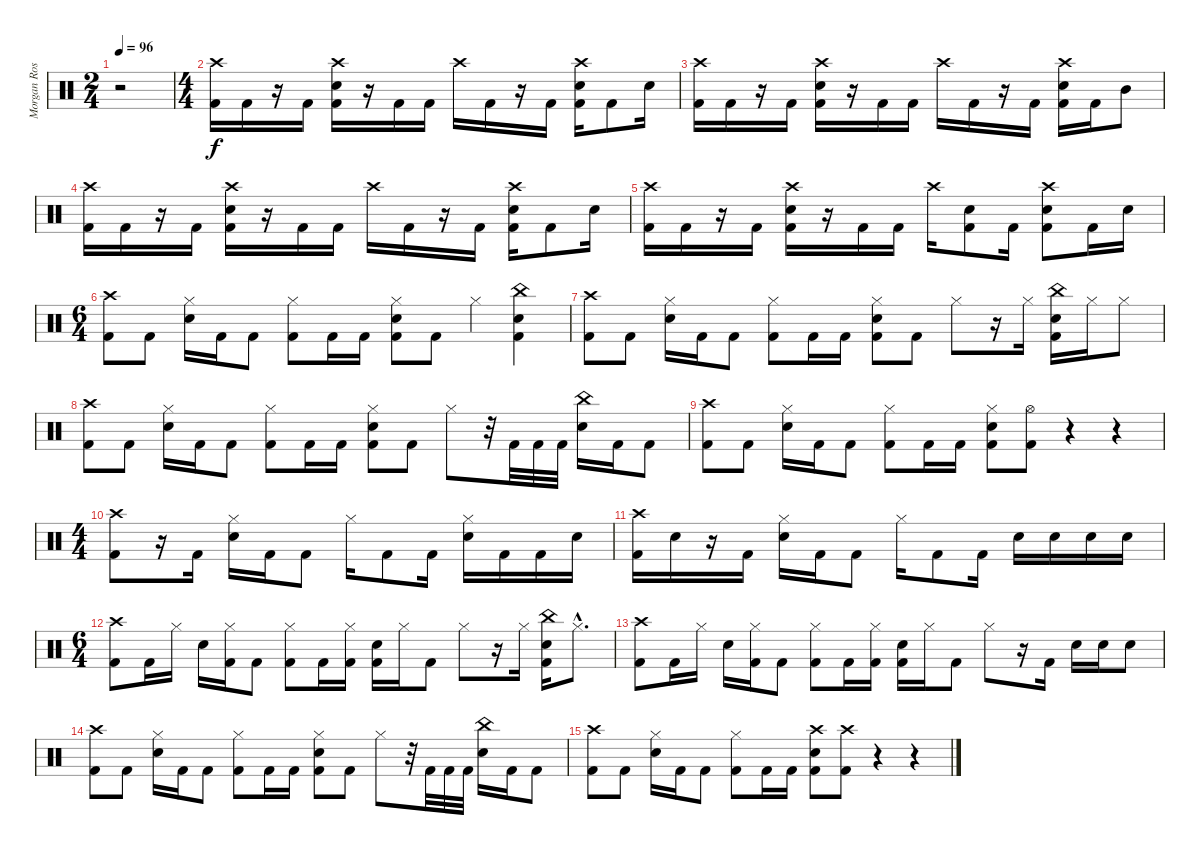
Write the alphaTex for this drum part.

\track ("Morgan Rose - Drums" "Morgan Ros") {instrument percussion}
\staff {score}
\articulation defaults
\ts (2 4)
\tempo 96
\clef neutral
\ks c
r.2{dy f} |
\ts (4 4)
("Crash high (hit)" "Kick (hit) 2").16 "Kick (hit) 2".16 r.16 "Kick (hit) 2".16 ("Crash high (hit)" "Electric Snare (hit)" "Kick (hit) 2").16 r.16 "Kick (hit) 2".16 "Kick (hit) 2".16 "Crash high (hit)".16 "Kick (hit) 2".16 r.16 "Kick (hit) 2".16 ("Crash high (hit)" "Electric Snare (hit)" "Kick (hit) 2").16 "Kick (hit) 2".8 "Electric Snare (hit)".16 |
("Crash high (hit)" "Kick (hit) 2").16 "Kick (hit) 2".16 r.16 "Kick (hit) 2".16 ("Crash high (hit)" "Electric Snare (hit)" "Kick (hit) 2").16 r.16 "Kick (hit) 2".16 "Kick (hit) 2".16 "Crash high (hit)".16 "Kick (hit) 2".16 r.16 "Kick (hit) 2".16 ("Crash high (hit)" "Electric Snare (hit)" "Kick (hit) 2").16 "Kick (hit) 2".16 "Mid Tom (hit)".8 |
("Crash high (hit)" "Kick (hit) 2").16 "Kick (hit) 2".16 r.16 "Kick (hit) 2".16 ("Crash high (hit)" "Electric Snare (hit)" "Kick (hit) 2").16 r.16 "Kick (hit) 2".16 "Kick (hit) 2".16 "Crash high (hit)".16 "Kick (hit) 2".16 r.16 "Kick (hit) 2".16 ("Crash high (hit)" "Electric Snare (hit)" "Kick (hit) 2").16 "Kick (hit) 2".8 "Electric Snare (hit)".16 |
("Crash high (hit)" "Kick (hit) 2").16 "Kick (hit) 2".16 r.16 "Kick (hit) 2".16 ("Crash high (hit)" "Electric Snare (hit)" "Kick (hit) 2").16 r.16 "Kick (hit) 2".16 "Kick (hit) 2".16 "Crash high (hit)".16 ("Electric Snare (hit)" "Kick (hit) 2").8 "Kick (hit) 2".16 ("Crash high (hit)" "Electric Snare (hit)" "Kick (hit) 2").8 "Kick (hit) 2".16 "Electric Snare (hit)".16 |
\ts (6 4)
("Crash high (hit)" "Kick (hit) 2").8 "Kick (hit) 2".8 ("Hi-Hat (closed)" "Electric Snare (hit)").16 "Kick (hit) 2".16 "Kick (hit) 2".8 ("Hi-Hat (closed)" "Kick (hit) 2").8 "Kick (hit) 2".16 "Kick (hit) 2".16 ("Hi-Hat (closed)" "Electric Snare (hit)" "Kick (hit) 2").8 "Kick (hit) 2".8 "Hi-Hat (closed)".4 ("China (hit)" "Electric Snare (hit)" "Kick (hit) 2").4 |
("Crash high (hit)" "Kick (hit) 2").8 "Kick (hit) 2".8 ("Hi-Hat (closed)" "Electric Snare (hit)").16 "Kick (hit) 2".16 "Kick (hit) 2".8 ("Hi-Hat (closed)" "Kick (hit) 2").8 "Kick (hit) 2".16 "Kick (hit) 2".16 ("Hi-Hat (closed)" "Electric Snare (hit)" "Kick (hit) 2").8 "Kick (hit) 2".8 "Hi-Hat (closed)".8 r.16 "Hi-Hat (closed)".16 ("China (hit)" "Electric Snare (hit)" "Kick (hit) 2").16 "Hi-Hat (closed)".16 "Hi-Hat (closed)".8 |
("Crash high (hit)" "Kick (hit) 2").8 "Kick (hit) 2".8 ("Hi-Hat (closed)" "Electric Snare (hit)").16 "Kick (hit) 2".16 "Kick (hit) 2".8 ("Hi-Hat (closed)" "Kick (hit) 2").8 "Kick (hit) 2".16 "Kick (hit) 2".16 ("Hi-Hat (closed)" "Electric Snare (hit)" "Kick (hit) 2").8 "Kick (hit) 2".8 "Hi-Hat (closed)".8 r.32 "Kick (hit) 2".32 "Kick (hit) 2".32 "Kick (hit) 2".32 ("China (hit)" "Electric Snare (hit)").16 "Kick (hit) 2".16 "Kick (hit) 2".8 |
("Crash high (hit)" "Kick (hit) 2").8 "Kick (hit) 2".8 ("Hi-Hat (closed)" "Electric Snare (hit)").16 "Kick (hit) 2".16 "Kick (hit) 2".8 ("Hi-Hat (closed)" "Kick (hit) 2").8 "Kick (hit) 2".16 "Kick (hit) 2".16 ("Hi-Hat (closed)" "Electric Snare (hit)" "Kick (hit) 2").8 ("Hi-Hat (open)" "Kick (hit) 2").8 r.4 r.4 |
\ts (4 4)
("Crash high (hit)" "Kick (hit) 2").8 r.16 "Kick (hit) 2".16 ("Hi-Hat (closed)" "Electric Snare (hit)").16 "Kick (hit) 2".16 "Kick (hit) 2".8 "Hi-Hat (closed)".16 "Kick (hit) 2".8 "Kick (hit) 2".16 ("Hi-Hat (closed)" "Electric Snare (hit)").16 "Kick (hit) 2".16 "Kick (hit) 2".16 "Electric Snare (hit)".16 |
("Crash high (hit)" "Kick (hit) 2").16 "Electric Snare (hit)".16 r.16 "Kick (hit) 2".16 ("Hi-Hat (closed)" "Electric Snare (hit)").16 "Kick (hit) 2".16 "Kick (hit) 2".8 "Hi-Hat (closed)".16 "Kick (hit) 2".8 "Kick (hit) 2".16 "Electric Snare (hit)".16 "Electric Snare (hit)".16 "Electric Snare (hit)".16 "Electric Snare (hit)".16 |
\ts (6 4)
("Crash high (hit)" "Kick (hit) 2").8 "Kick (hit) 2".16 "Hi-Hat (closed)".16 "Electric Snare (hit)".16 ("Hi-Hat (closed)" "Kick (hit) 2").16 "Kick (hit) 2".8 ("Hi-Hat (closed)" "Kick (hit) 2").8 "Kick (hit) 2".16 ("Hi-Hat (closed)" "Kick (hit) 2").16 ("Electric Snare (hit)" "Kick (hit) 2").16 "Hi-Hat (closed)".16 "Kick (hit) 2".8 "Hi-Hat (closed)".8 r.16 "Hi-Hat (closed)".16 ("China (hit)" "Electric Snare (hit)" "Kick (hit) 2").16 "Hi-Hat (closed)"{hac}.8{d} |
("Crash high (hit)" "Kick (hit) 2").8 "Kick (hit) 2".16 "Hi-Hat (closed)".16 "Electric Snare (hit)".16 ("Hi-Hat (closed)" "Kick (hit) 2").16 "Kick (hit) 2".8 ("Hi-Hat (closed)" "Kick (hit) 2").8 "Kick (hit) 2".16 ("Hi-Hat (closed)" "Kick (hit) 2").16 ("Electric Snare (hit)" "Kick (hit) 2").16 "Hi-Hat (closed)".16 "Kick (hit) 2".8 "Hi-Hat (closed)".8 r.16 "Kick (hit) 2".16 "Electric Snare (hit)".16 "Electric Snare (hit)".16 "Electric Snare (hit)".8 |
("Crash high (hit)" "Kick (hit) 2").8 "Kick (hit) 2".8 ("Hi-Hat (closed)" "Electric Snare (hit)").16 "Kick (hit) 2".16 "Kick (hit) 2".8 ("Hi-Hat (closed)" "Kick (hit) 2").8 "Kick (hit) 2".16 "Kick (hit) 2".16 ("Hi-Hat (closed)" "Electric Snare (hit)" "Kick (hit) 2").8 "Kick (hit) 2".8 "Hi-Hat (closed)".8 r.32 "Kick (hit) 2".32 "Kick (hit) 2".32 "Kick (hit) 2".32 ("China (hit)" "Electric Snare (hit)").16 "Kick (hit) 2".16 "Kick (hit) 2".8 |
("Crash high (hit)" "Kick (hit) 2").8 "Kick (hit) 2".8 ("Hi-Hat (closed)" "Electric Snare (hit)").16 "Kick (hit) 2".16 "Kick (hit) 2".8 ("Hi-Hat (closed)" "Kick (hit) 2").8 "Kick (hit) 2".16 "Kick (hit) 2".16 ("Crash high (hit)" "Electric Snare (hit)" "Kick (hit) 2").8 ("Crash high (hit)" "Kick (hit) 2").8 r.4 r.4
